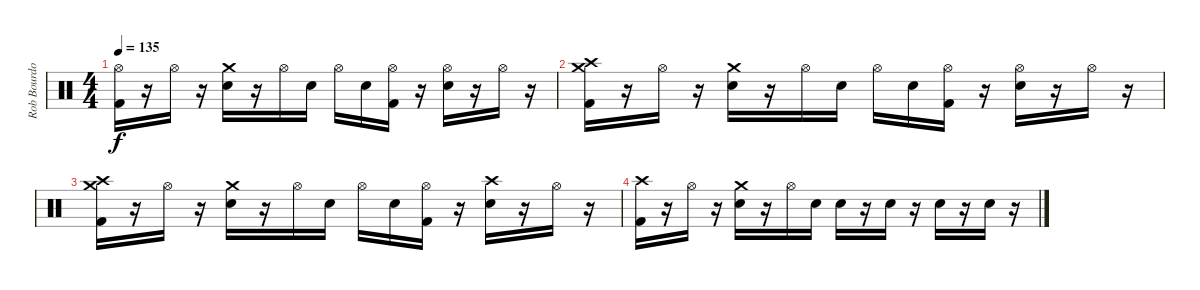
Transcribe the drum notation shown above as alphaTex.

\track ("Rob Bourdon (Drums)" "Rob Bourdo") {instrument percussion}
\staff {score}
\articulation defaults
\ts (4 4)
\tempo 135
\clef neutral
\ks c
("Hi-Hat (open)" "Kick (hit) 2").16{dy f} r.16 "Hi-Hat (open)".16 r.16 ("Crash medium (hit)" "Electric Snare (hit)").16 r.16 "Hi-Hat (open)".16 "Electric Snare (hit)".16 "Hi-Hat (open)".16 "Electric Snare (hit)".16 ("Hi-Hat (open)" "Kick (hit) 2").16 r.16 ("Hi-Hat (open)" "Electric Snare (hit)").16 r.16 "Hi-Hat (open)".16 r.16 |
("Crash high (hit)" "Crash medium (hit)" "Kick (hit) 2").16 r.16 "Hi-Hat (open)".16 r.16 ("Crash medium (hit)" "Electric Snare (hit)").16 r.16 "Hi-Hat (open)".16 "Electric Snare (hit)".16 "Hi-Hat (open)".16 "Electric Snare (hit)".16 ("Hi-Hat (open)" "Kick (hit) 2").16 r.16 ("Hi-Hat (open)" "Electric Snare (hit)").16 r.16 "Hi-Hat (open)".16 r.16 |
("Crash high (hit)" "Crash medium (hit)" "Kick (hit) 2").16 r.16 "Hi-Hat (open)".16 r.16 ("Crash medium (hit)" "Electric Snare (hit)").16 r.16 "Hi-Hat (open)".16 "Electric Snare (hit)".16 "Hi-Hat (open)".16 "Electric Snare (hit)".16 ("Hi-Hat (open)" "Kick (hit) 2").16 r.16 ("Crash high (hit)" "Electric Snare (hit)").16 r.16 "Hi-Hat (open)".16 r.16 |
("Crash high (hit)" "Kick (hit) 2").16 r.16 "Hi-Hat (open)".16 r.16 ("Crash medium (hit)" "Electric Snare (hit)").16 r.16 "Hi-Hat (open)".16 "Electric Snare (hit)".16 "Electric Snare (hit)".16 r.16 "Electric Snare (hit)".16 r.16 "Electric Snare (hit)".16 r.16 "Electric Snare (hit)".16 r.16
